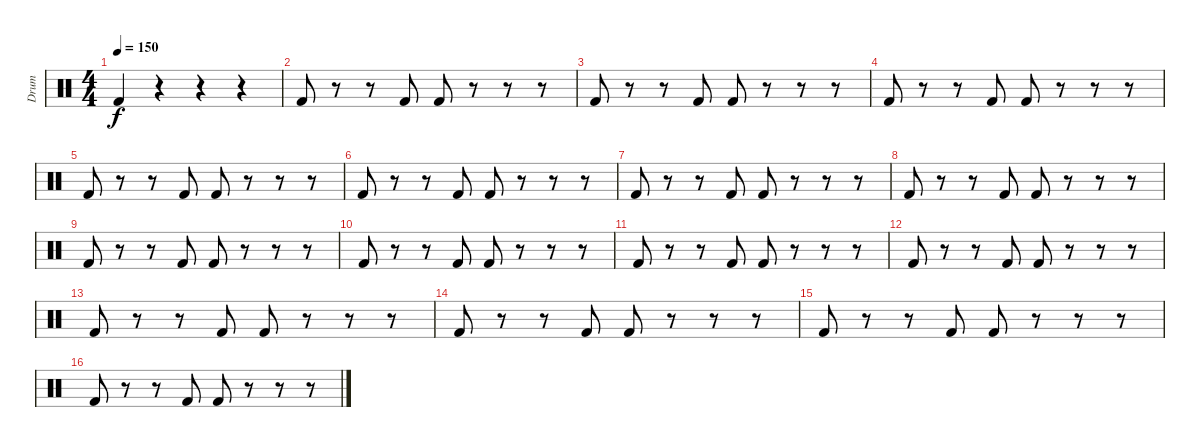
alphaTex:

\track ("Drum" "Drum") {instrument percussion}
\staff {score}
\articulation defaults
\ts (4 4)
\tempo 150
\clef neutral
\ks c "Kick (hit) 2".4{dy f}
r.4 r.4 r.4 |
"Kick (hit) 2".8 r.8 r.8 "Kick (hit) 2".8 "Kick (hit) 2".8 r.8 r.8 r.8 |
"Kick (hit) 2".8 r.8 r.8 "Kick (hit) 2".8 "Kick (hit) 2".8 r.8 r.8 r.8 |
"Kick (hit) 2".8 r.8 r.8 "Kick (hit) 2".8 "Kick (hit) 2".8 r.8 r.8 r.8 |
"Kick (hit) 2".8 r.8 r.8 "Kick (hit) 2".8 "Kick (hit) 2".8 r.8 r.8 r.8 |
"Kick (hit) 2".8 r.8 r.8 "Kick (hit) 2".8 "Kick (hit) 2".8 r.8 r.8 r.8 |
"Kick (hit) 2".8 r.8 r.8 "Kick (hit) 2".8 "Kick (hit) 2".8 r.8 r.8 r.8 |
"Kick (hit) 2".8 r.8 r.8 "Kick (hit) 2".8 "Kick (hit) 2".8 r.8 r.8 r.8 |
"Kick (hit) 2".8 r.8 r.8 "Kick (hit) 2".8 "Kick (hit) 2".8 r.8 r.8 r.8 |
"Kick (hit) 2".8 r.8 r.8 "Kick (hit) 2".8 "Kick (hit) 2".8 r.8 r.8 r.8 |
"Kick (hit) 2".8 r.8 r.8 "Kick (hit) 2".8 "Kick (hit) 2".8 r.8 r.8 r.8 |
"Kick (hit) 2".8 r.8 r.8 "Kick (hit) 2".8 "Kick (hit) 2".8 r.8 r.8 r.8 |
"Kick (hit) 2".8 r.8 r.8 "Kick (hit) 2".8 "Kick (hit) 2".8 r.8 r.8 r.8 |
"Kick (hit) 2".8 r.8 r.8 "Kick (hit) 2".8 "Kick (hit) 2".8 r.8 r.8 r.8 |
"Kick (hit) 2".8 r.8 r.8 "Kick (hit) 2".8 "Kick (hit) 2".8 r.8 r.8 r.8 |
"Kick (hit) 2".8 r.8 r.8 "Kick (hit) 2".8 "Kick (hit) 2".8 r.8 r.8 r.8
